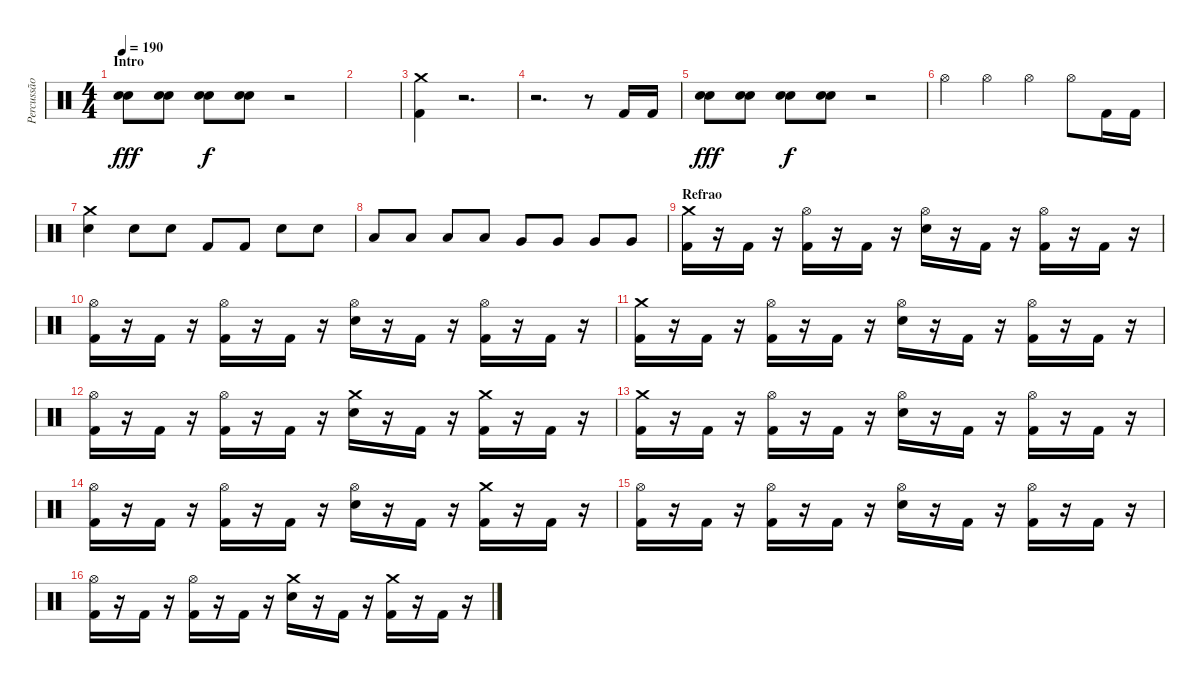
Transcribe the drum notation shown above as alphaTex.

\track ("Percussão" "Percussão") {instrument percussion}
\staff {score}
\articulation defaults
\ts (4 4)
\section ("" "Intro")
\tempo 190
\clef neutral
\ks c
("Electric Snare (hit)" "Electric Snare (hit)").8{dy fff} ("Electric Snare (hit)" "Electric Snare (hit)").8 ("Electric Snare (hit)" "Electric Snare (hit)").8{dy f} ("Electric Snare (hit)" "Electric Snare (hit)").8 r.2 |
|
("Crash medium (hit)" "Kick (hit) 2").4 r.2{d} |
r.2{d} r.8 "Kick (hit) 2".16 "Kick (hit) 2".16 |
("Electric Snare (hit)" "Electric Snare (hit)").8{dy fff} ("Electric Snare (hit)" "Electric Snare (hit)").8 ("Electric Snare (hit)" "Electric Snare (hit)").8{dy f} ("Electric Snare (hit)" "Electric Snare (hit)").8 r.2 |
"Hi-Hat (open)".4 "Hi-Hat (open)".4 "Hi-Hat (open)".4 "Hi-Hat (open)".8 "Kick (hit) 2".16 "Kick (hit) 2".16 |
("Crash medium (hit)" "Electric Snare (hit)").4 "Electric Snare (hit)".8 "Electric Snare (hit)".8 "Kick (hit) 2".8 "Kick (hit) 2".8 "Electric Snare (hit)".8 "Electric Snare (hit)".8 |
"Low Tom (hit)".8 "Low Tom (hit)".8 "Low Tom (hit)".8 "Low Tom (hit)".8 "Very Low Tom (hit)".8 "Very Low Tom (hit)".8 "Very Low Tom (hit)".8 "Very Low Tom (hit)".8 |
\section ("" "Refrao")
("Crash medium (hit)" "Kick (hit) 2").16 r.16 "Kick (hit) 2".16 r.16 ("Hi-Hat (open)" "Kick (hit) 2").16 r.16 "Kick (hit) 2".16 r.16 ("Hi-Hat (open)" "Electric Snare (hit)").16 r.16 "Kick (hit) 2".16 r.16 ("Hi-Hat (open)" "Kick (hit) 2").16 r.16 "Kick (hit) 2".16 r.16 |
("Hi-Hat (open)" "Kick (hit) 2").16 r.16 "Kick (hit) 2".16 r.16 ("Hi-Hat (open)" "Kick (hit) 2").16 r.16 "Kick (hit) 2".16 r.16 ("Hi-Hat (open)" "Electric Snare (hit)").16 r.16 "Kick (hit) 2".16 r.16 ("Hi-Hat (open)" "Kick (hit) 2").16 r.16 "Kick (hit) 2".16 r.16 |
("Crash medium (hit)" "Kick (hit) 2").16 r.16 "Kick (hit) 2".16 r.16 ("Hi-Hat (open)" "Kick (hit) 2").16 r.16 "Kick (hit) 2".16 r.16 ("Hi-Hat (open)" "Electric Snare (hit)").16 r.16 "Kick (hit) 2".16 r.16 ("Hi-Hat (open)" "Kick (hit) 2").16 r.16 "Kick (hit) 2".16 r.16 |
("Hi-Hat (open)" "Kick (hit) 2").16 r.16 "Kick (hit) 2".16 r.16 ("Hi-Hat (open)" "Kick (hit) 2").16 r.16 "Kick (hit) 2".16 r.16 ("Crash medium (hit)" "Electric Snare (hit)").16 r.16 "Kick (hit) 2".16 r.16 ("Crash medium (hit)" "Kick (hit) 2").16 r.16 "Kick (hit) 2".16 r.16 |
("Crash medium (hit)" "Kick (hit) 2").16 r.16 "Kick (hit) 2".16 r.16 ("Hi-Hat (open)" "Kick (hit) 2").16 r.16 "Kick (hit) 2".16 r.16 ("Hi-Hat (open)" "Electric Snare (hit)").16 r.16 "Kick (hit) 2".16 r.16 ("Hi-Hat (open)" "Kick (hit) 2").16 r.16 "Kick (hit) 2".16 r.16 |
("Hi-Hat (open)" "Kick (hit) 2").16 r.16 "Kick (hit) 2".16 r.16 ("Hi-Hat (open)" "Kick (hit) 2").16 r.16 "Kick (hit) 2".16 r.16 ("Hi-Hat (open)" "Electric Snare (hit)").16 r.16 "Kick (hit) 2".16 r.16 ("Crash medium (hit)" "Kick (hit) 2").16 r.16 "Kick (hit) 2".16 r.16 |
("Hi-Hat (open)" "Kick (hit) 2").16 r.16 "Kick (hit) 2".16 r.16 ("Hi-Hat (open)" "Kick (hit) 2").16 r.16 "Kick (hit) 2".16 r.16 ("Hi-Hat (open)" "Electric Snare (hit)").16 r.16 "Kick (hit) 2".16 r.16 ("Hi-Hat (open)" "Kick (hit) 2").16 r.16 "Kick (hit) 2".16 r.16 |
("Hi-Hat (open)" "Kick (hit) 2").16 r.16 "Kick (hit) 2".16 r.16 ("Hi-Hat (open)" "Kick (hit) 2").16 r.16 "Kick (hit) 2".16 r.16 ("Crash medium (hit)" "Electric Snare (hit)").16 r.16 "Kick (hit) 2".16 r.16 ("Crash medium (hit)" "Kick (hit) 2").16 r.16 "Kick (hit) 2".16 r.16
